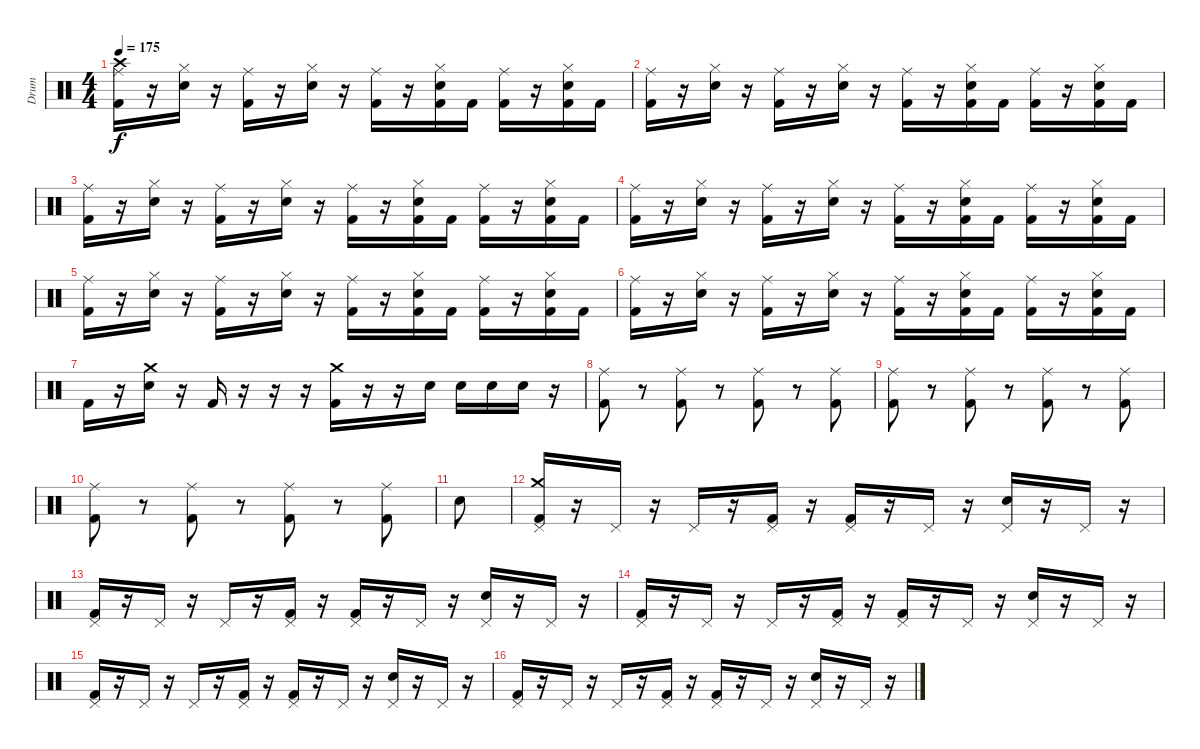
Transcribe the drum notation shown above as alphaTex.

\track ("Drum" "Drum") {instrument percussion}
\staff {score}
\articulation defaults
\ts (4 4)
\tempo 175
\clef neutral
\ks c
("Ride (middle)" "Kick (hit) 2" "Crash high (hit)").16{dy f} r.16 ("Hi-Hat (closed)" "Electric Snare (hit)").16 r.16 ("Ride (middle)" "Kick (hit) 2").16 r.16 ("Hi-Hat (closed)" "Electric Snare (hit)").16 r.16 ("Ride (middle)" "Kick (hit) 2").16 r.16 ("Hi-Hat (closed)" "Electric Snare (hit)" "Kick (hit) 2").16 "Kick (hit) 2".16 ("Ride (middle)" "Kick (hit) 2").16 r.16 ("Hi-Hat (closed)" "Electric Snare (hit)" "Kick (hit) 2").16 "Kick (hit) 2".16 |
("Ride (middle)" "Kick (hit) 2").16 r.16 ("Hi-Hat (closed)" "Electric Snare (hit)").16 r.16 ("Ride (middle)" "Kick (hit) 2").16 r.16 ("Hi-Hat (closed)" "Electric Snare (hit)").16 r.16 ("Ride (middle)" "Kick (hit) 2").16 r.16 ("Hi-Hat (closed)" "Electric Snare (hit)" "Kick (hit) 2").16 "Kick (hit) 2".16 ("Ride (middle)" "Kick (hit) 2").16 r.16 ("Hi-Hat (closed)" "Electric Snare (hit)" "Kick (hit) 2").16 "Kick (hit) 2".16 |
("Ride (middle)" "Kick (hit) 2").16 r.16 ("Hi-Hat (closed)" "Electric Snare (hit)").16 r.16 ("Ride (middle)" "Kick (hit) 2").16 r.16 ("Hi-Hat (closed)" "Electric Snare (hit)").16 r.16 ("Ride (middle)" "Kick (hit) 2").16 r.16 ("Hi-Hat (closed)" "Electric Snare (hit)" "Kick (hit) 2").16 "Kick (hit) 2".16 ("Ride (middle)" "Kick (hit) 2").16 r.16 ("Hi-Hat (closed)" "Electric Snare (hit)" "Kick (hit) 2").16 "Kick (hit) 2".16 |
("Ride (middle)" "Kick (hit) 2").16 r.16 ("Hi-Hat (closed)" "Electric Snare (hit)").16 r.16 ("Ride (middle)" "Kick (hit) 2").16 r.16 ("Hi-Hat (closed)" "Electric Snare (hit)").16 r.16 ("Ride (middle)" "Kick (hit) 2").16 r.16 ("Hi-Hat (closed)" "Electric Snare (hit)" "Kick (hit) 2").16 "Kick (hit) 2".16 ("Ride (middle)" "Kick (hit) 2").16 r.16 ("Hi-Hat (closed)" "Electric Snare (hit)" "Kick (hit) 2").16 "Kick (hit) 2".16 |
("Ride (middle)" "Kick (hit) 2").16 r.16 ("Hi-Hat (closed)" "Electric Snare (hit)").16 r.16 ("Ride (middle)" "Kick (hit) 2").16 r.16 ("Hi-Hat (closed)" "Electric Snare (hit)").16 r.16 ("Ride (middle)" "Kick (hit) 2").16 r.16 ("Hi-Hat (closed)" "Electric Snare (hit)" "Kick (hit) 2").16 "Kick (hit) 2".16 ("Ride (middle)" "Kick (hit) 2").16 r.16 ("Hi-Hat (closed)" "Electric Snare (hit)" "Kick (hit) 2").16 "Kick (hit) 2".16 |
("Ride (middle)" "Kick (hit) 2").16 r.16 ("Hi-Hat (closed)" "Electric Snare (hit)").16 r.16 ("Ride (middle)" "Kick (hit) 2").16 r.16 ("Hi-Hat (closed)" "Electric Snare (hit)").16 r.16 ("Ride (middle)" "Kick (hit) 2").16 r.16 ("Hi-Hat (closed)" "Electric Snare (hit)" "Kick (hit) 2").16 "Kick (hit) 2".16 ("Ride (middle)" "Kick (hit) 2").16 r.16 ("Hi-Hat (closed)" "Electric Snare (hit)" "Kick (hit) 2").16 "Kick (hit) 2".16 |
"Kick (hit) 2".16 r.16 ("Electric Snare (hit)" "Crash medium (hit)").16 r.16 "Kick (hit) 2".16 r.16 r.16 r.16 ("Kick (hit) 2" "Crash medium (hit)").16 r.16 r.16 "Electric Snare (hit)".16 "Electric Snare (hit)".16 "Electric Snare (hit)".16 "Electric Snare (hit)".16 r.16 |
("Ride (middle)" "Kick (hit) 2").8 r.8 ("Ride (middle)" "Kick (hit) 2").8 r.8 ("Ride (middle)" "Kick (hit) 2").8 r.8 ("Ride (middle)" "Kick (hit) 2").8 |
("Ride (middle)" "Kick (hit) 2").8 r.8 ("Ride (middle)" "Kick (hit) 2").8 r.8 ("Ride (middle)" "Kick (hit) 2").8 r.8 ("Ride (middle)" "Kick (hit) 2").8 |
("Ride (middle)" "Kick (hit) 2").8 r.8 ("Ride (middle)" "Kick (hit) 2").8 r.8 ("Ride (middle)" "Kick (hit) 2").8 r.8 ("Ride (middle)" "Kick (hit) 2").8 |
"Electric Snare (hit)".8 |
("Pedal Hi-Hat (hit)" "Kick (hit) 2" "Crash medium (hit)").16 r.16 "Pedal Hi-Hat (hit)".16 r.16 "Pedal Hi-Hat (hit)".16 r.16 ("Pedal Hi-Hat (hit)" "Kick (hit) 2").16 r.16 ("Pedal Hi-Hat (hit)" "Kick (hit) 2").16 r.16 "Pedal Hi-Hat (hit)".16 r.16 ("Pedal Hi-Hat (hit)" "Electric Snare (hit)").16 r.16 "Pedal Hi-Hat (hit)".16 r.16 |
("Pedal Hi-Hat (hit)" "Kick (hit) 2").16 r.16 "Pedal Hi-Hat (hit)".16 r.16 "Pedal Hi-Hat (hit)".16 r.16 ("Pedal Hi-Hat (hit)" "Kick (hit) 2").16 r.16 ("Pedal Hi-Hat (hit)" "Kick (hit) 2").16 r.16 "Pedal Hi-Hat (hit)".16 r.16 ("Pedal Hi-Hat (hit)" "Electric Snare (hit)").16 r.16 "Pedal Hi-Hat (hit)".16 r.16 |
("Pedal Hi-Hat (hit)" "Kick (hit) 2").16 r.16 "Pedal Hi-Hat (hit)".16 r.16 "Pedal Hi-Hat (hit)".16 r.16 ("Pedal Hi-Hat (hit)" "Kick (hit) 2").16 r.16 ("Pedal Hi-Hat (hit)" "Kick (hit) 2").16 r.16 "Pedal Hi-Hat (hit)".16 r.16 ("Pedal Hi-Hat (hit)" "Electric Snare (hit)").16 r.16 "Pedal Hi-Hat (hit)".16 r.16 |
("Pedal Hi-Hat (hit)" "Kick (hit) 2").16 r.16 "Pedal Hi-Hat (hit)".16 r.16 "Pedal Hi-Hat (hit)".16 r.16 ("Pedal Hi-Hat (hit)" "Kick (hit) 2").16 r.16 ("Pedal Hi-Hat (hit)" "Kick (hit) 2").16 r.16 "Pedal Hi-Hat (hit)".16 r.16 ("Pedal Hi-Hat (hit)" "Electric Snare (hit)").16 r.16 "Pedal Hi-Hat (hit)".16 r.16 |
("Pedal Hi-Hat (hit)" "Kick (hit) 2").16 r.16 "Pedal Hi-Hat (hit)".16 r.16 "Pedal Hi-Hat (hit)".16 r.16 ("Pedal Hi-Hat (hit)" "Kick (hit) 2").16 r.16 ("Pedal Hi-Hat (hit)" "Kick (hit) 2").16 r.16 "Pedal Hi-Hat (hit)".16 r.16 ("Pedal Hi-Hat (hit)" "Electric Snare (hit)").16 r.16 "Pedal Hi-Hat (hit)".16 r.16
